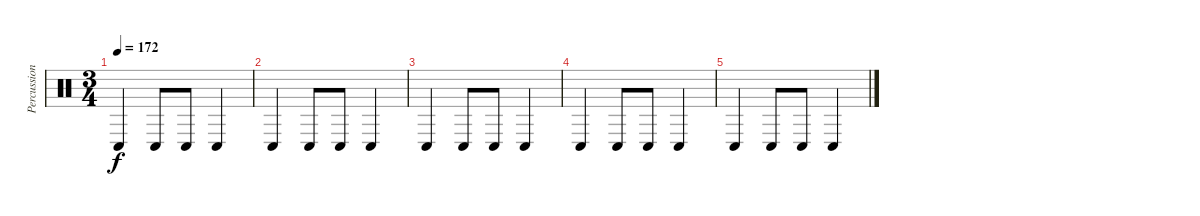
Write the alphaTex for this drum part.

\track ("Percussion" "Percussion") {instrument percussion}
\staff {score}
\articulation defaults
\ts (3 4)
\tempo 172
\clef neutral
\ks c "Conga low (hit)".4{dy f} "Conga low (hit)".8 "Conga low (hit)".8 "Conga low (hit)".4
|
"Conga low (hit)".4 "Conga low (hit)".8 "Conga low (hit)".8 "Conga low (hit)".4 |
"Conga low (hit)".4 "Conga low (hit)".8 "Conga low (hit)".8 "Conga low (hit)".4 |
"Conga low (hit)".4 "Conga low (hit)".8 "Conga low (hit)".8 "Conga low (hit)".4 |
"Conga low (hit)".4 "Conga low (hit)".8 "Conga low (hit)".8 "Conga low (hit)".4
